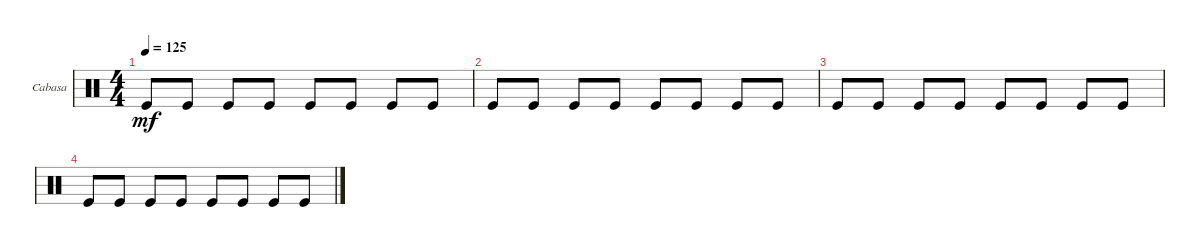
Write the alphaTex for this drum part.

\defaultSystemsLayout 4
\bracketExtendMode groupsimilarinstruments
\firstSystemTrackNameOrientation horizontal
\otherSystemsTrackNameOrientation horizontal
\track ("Cabasa" "Cabasa") {instrument percussion}
\staff {score}
\articulation defaults
\ts (4 4)
\tempo 125
\clef neutral
\ks c "Kick (hit)".8{dy mf} "Kick (hit)".8 "Kick (hit)".8 "Kick (hit)".8 "Kick (hit)".8 "Kick (hit)".8 "Kick (hit)".8 "Kick (hit)".8
|
"Kick (hit)".8 "Kick (hit)".8 "Kick (hit)".8 "Kick (hit)".8 "Kick (hit)".8 "Kick (hit)".8 "Kick (hit)".8 "Kick (hit)".8 |
"Kick (hit)".8 "Kick (hit)".8 "Kick (hit)".8 "Kick (hit)".8 "Kick (hit)".8 "Kick (hit)".8 "Kick (hit)".8 "Kick (hit)".8 |
"Kick (hit)".8 "Kick (hit)".8 "Kick (hit)".8 "Kick (hit)".8 "Kick (hit)".8 "Kick (hit)".8 "Kick (hit)".8 "Kick (hit)".8
